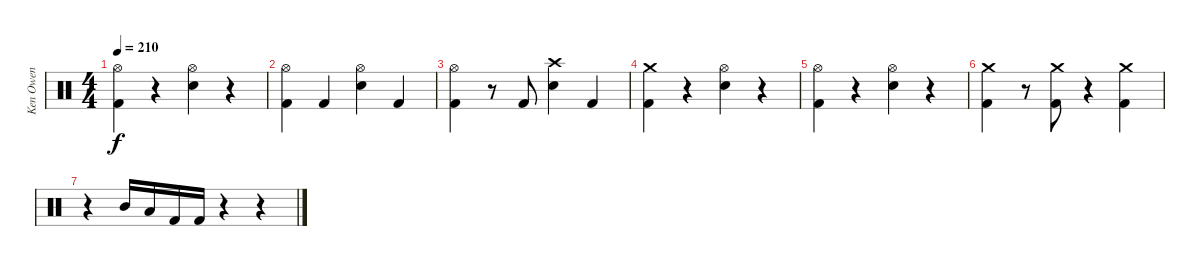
\track ("Ken Owen" "Ken Owen") {instrument percussion}
\staff {score}
\articulation defaults
\ts (4 4)
\tempo 210
\clef neutral
\ks c
("Hi-Hat (open)" "Kick (hit) 2").4{dy f} r.4 ("Hi-Hat (open)" "Snare (hit) 2").4 r.4 |
("Hi-Hat (open)" "Kick (hit) 2").4 "Kick (hit) 2".4 ("Hi-Hat (open)" "Snare (hit) 2").4 "Kick (hit) 2".4 |
("Hi-Hat (open)" "Kick (hit) 2").4 r.8 "Kick (hit) 2".8 ("Crash high (hit)" "Snare (hit) 2").4 "Kick (hit) 2".4 |
("Crash medium (hit)" "Kick (hit) 2").4 r.4 ("Hi-Hat (open)" "Snare (hit) 2").4 r.4 |
("Hi-Hat (open)" "Kick (hit) 2").4 r.4 ("Hi-Hat (open)" "Snare (hit) 2").4 r.4 |
("Crash medium (hit)" "Kick (hit) 2").4 r.8 ("Crash medium (hit)" "Kick (hit) 2").8 r.4 ("Crash medium (hit)" "Kick (hit) 2").4 |
r.4 "Mid Tom (hit)".16 "Low Tom (hit)".16 "Kick (hit) 2".16 "Kick (hit) 2".16 r.4 r.4
